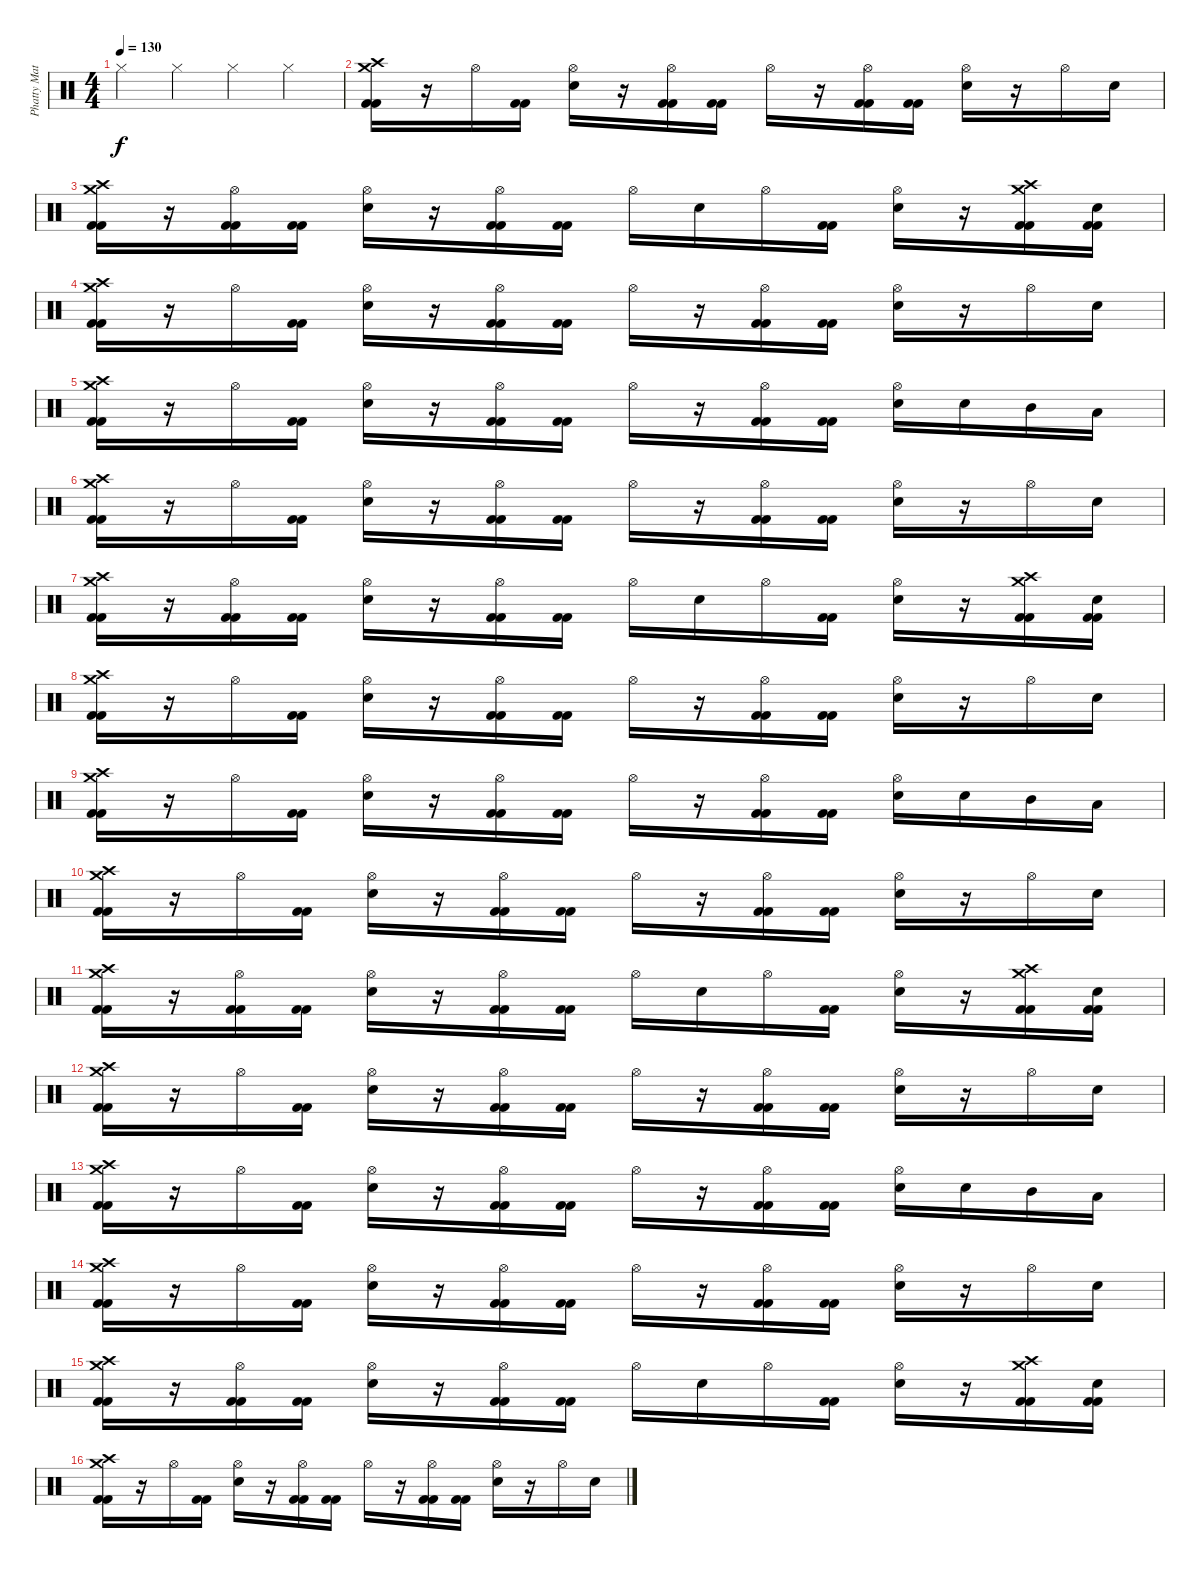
\track ("Phatty Matty Withrow (Drums)" "Phatty Mat") {instrument percussion}
\staff {score}
\articulation defaults
\ts (4 4)
\tempo 130
\clef neutral
\ks c "Hi-Hat (closed)".4{dy f} "Hi-Hat (closed)".4 "Hi-Hat (closed)".4 "Hi-Hat (closed)".4
|
("Crash high (hit)" "Crash medium (hit)" "Kick (hit) 2" "Kick (hit) 2").16 r.16 "Hi-Hat (open)".16 ("Kick (hit) 2" "Kick (hit) 2").16 ("Hi-Hat (open)" "Electric Snare (hit)").16 r.16 ("Hi-Hat (open)" "Kick (hit) 2" "Kick (hit) 2").16 ("Kick (hit) 2" "Kick (hit) 2").16 "Hi-Hat (open)".16 r.16 ("Hi-Hat (open)" "Kick (hit) 2" "Kick (hit) 2").16 ("Kick (hit) 2" "Kick (hit) 2").16 ("Hi-Hat (open)" "Electric Snare (hit)").16 r.16 "Hi-Hat (open)".16 "Electric Snare (hit)".16 |
("Crash high (hit)" "Crash medium (hit)" "Kick (hit) 2" "Kick (hit) 2").16 r.16 ("Hi-Hat (open)" "Kick (hit) 2" "Kick (hit) 2").16 ("Kick (hit) 2" "Kick (hit) 2").16 ("Hi-Hat (open)" "Electric Snare (hit)").16 r.16 ("Hi-Hat (open)" "Kick (hit) 2" "Kick (hit) 2").16 ("Kick (hit) 2" "Kick (hit) 2").16 "Hi-Hat (open)".16 "Electric Snare (hit)".16 "Hi-Hat (open)".16 ("Kick (hit) 2" "Kick (hit) 2").16 ("Hi-Hat (open)" "Electric Snare (hit)").16 r.16 ("Crash high (hit)" "Crash medium (hit)" "Kick (hit) 2" "Kick (hit) 2").16 ("Electric Snare (hit)" "Kick (hit) 2" "Kick (hit) 2").16 |
("Crash high (hit)" "Crash medium (hit)" "Kick (hit) 2" "Kick (hit) 2").16 r.16 "Hi-Hat (open)".16 ("Kick (hit) 2" "Kick (hit) 2").16 ("Hi-Hat (open)" "Electric Snare (hit)").16 r.16 ("Hi-Hat (open)" "Kick (hit) 2" "Kick (hit) 2").16 ("Kick (hit) 2" "Kick (hit) 2").16 "Hi-Hat (open)".16 r.16 ("Hi-Hat (open)" "Kick (hit) 2" "Kick (hit) 2").16 ("Kick (hit) 2" "Kick (hit) 2").16 ("Hi-Hat (open)" "Electric Snare (hit)").16 r.16 "Hi-Hat (open)".16 "Electric Snare (hit)".16 |
("Crash high (hit)" "Crash medium (hit)" "Kick (hit) 2" "Kick (hit) 2").16 r.16 "Hi-Hat (open)".16 ("Kick (hit) 2" "Kick (hit) 2").16 ("Hi-Hat (open)" "Electric Snare (hit)").16 r.16 ("Hi-Hat (open)" "Kick (hit) 2" "Kick (hit) 2").16 ("Kick (hit) 2" "Kick (hit) 2").16 "Hi-Hat (open)".16 r.16 ("Hi-Hat (open)" "Kick (hit) 2" "Kick (hit) 2").16 ("Kick (hit) 2" "Kick (hit) 2").16 ("Hi-Hat (open)" "Electric Snare (hit)").16 "Electric Snare (hit)".16 "Mid Tom (hit)".16 "Low Floor Tom (hit)".16 |
("Crash high (hit)" "Crash medium (hit)" "Kick (hit) 2" "Kick (hit) 2").16 r.16 "Hi-Hat (open)".16 ("Kick (hit) 2" "Kick (hit) 2").16 ("Hi-Hat (open)" "Electric Snare (hit)").16 r.16 ("Hi-Hat (open)" "Kick (hit) 2" "Kick (hit) 2").16 ("Kick (hit) 2" "Kick (hit) 2").16 "Hi-Hat (open)".16 r.16 ("Hi-Hat (open)" "Kick (hit) 2" "Kick (hit) 2").16 ("Kick (hit) 2" "Kick (hit) 2").16 ("Hi-Hat (open)" "Electric Snare (hit)").16 r.16 "Hi-Hat (open)".16 "Electric Snare (hit)".16 |
("Crash high (hit)" "Crash medium (hit)" "Kick (hit) 2" "Kick (hit) 2").16 r.16 ("Hi-Hat (open)" "Kick (hit) 2" "Kick (hit) 2").16 ("Kick (hit) 2" "Kick (hit) 2").16 ("Hi-Hat (open)" "Electric Snare (hit)").16 r.16 ("Hi-Hat (open)" "Kick (hit) 2" "Kick (hit) 2").16 ("Kick (hit) 2" "Kick (hit) 2").16 "Hi-Hat (open)".16 "Electric Snare (hit)".16 "Hi-Hat (open)".16 ("Kick (hit) 2" "Kick (hit) 2").16 ("Hi-Hat (open)" "Electric Snare (hit)").16 r.16 ("Crash high (hit)" "Crash medium (hit)" "Kick (hit) 2" "Kick (hit) 2").16 ("Electric Snare (hit)" "Kick (hit) 2" "Kick (hit) 2").16 |
("Crash high (hit)" "Crash medium (hit)" "Kick (hit) 2" "Kick (hit) 2").16 r.16 "Hi-Hat (open)".16 ("Kick (hit) 2" "Kick (hit) 2").16 ("Hi-Hat (open)" "Electric Snare (hit)").16 r.16 ("Hi-Hat (open)" "Kick (hit) 2" "Kick (hit) 2").16 ("Kick (hit) 2" "Kick (hit) 2").16 "Hi-Hat (open)".16 r.16 ("Hi-Hat (open)" "Kick (hit) 2" "Kick (hit) 2").16 ("Kick (hit) 2" "Kick (hit) 2").16 ("Hi-Hat (open)" "Electric Snare (hit)").16 r.16 "Hi-Hat (open)".16 "Electric Snare (hit)".16 |
("Crash high (hit)" "Crash medium (hit)" "Kick (hit) 2" "Kick (hit) 2").16 r.16 "Hi-Hat (open)".16 ("Kick (hit) 2" "Kick (hit) 2").16 ("Hi-Hat (open)" "Electric Snare (hit)").16 r.16 ("Hi-Hat (open)" "Kick (hit) 2" "Kick (hit) 2").16 ("Kick (hit) 2" "Kick (hit) 2").16 "Hi-Hat (open)".16 r.16 ("Hi-Hat (open)" "Kick (hit) 2" "Kick (hit) 2").16 ("Kick (hit) 2" "Kick (hit) 2").16 ("Hi-Hat (open)" "Electric Snare (hit)").16 "Electric Snare (hit)".16 "Mid Tom (hit)".16 "Low Floor Tom (hit)".16 |
("Crash high (hit)" "Crash medium (hit)" "Kick (hit) 2" "Kick (hit) 2").16 r.16 "Hi-Hat (open)".16 ("Kick (hit) 2" "Kick (hit) 2").16 ("Hi-Hat (open)" "Electric Snare (hit)").16 r.16 ("Hi-Hat (open)" "Kick (hit) 2" "Kick (hit) 2").16 ("Kick (hit) 2" "Kick (hit) 2").16 "Hi-Hat (open)".16 r.16 ("Hi-Hat (open)" "Kick (hit) 2" "Kick (hit) 2").16 ("Kick (hit) 2" "Kick (hit) 2").16 ("Hi-Hat (open)" "Electric Snare (hit)").16 r.16 "Hi-Hat (open)".16 "Electric Snare (hit)".16 |
("Crash high (hit)" "Crash medium (hit)" "Kick (hit) 2" "Kick (hit) 2").16 r.16 ("Hi-Hat (open)" "Kick (hit) 2" "Kick (hit) 2").16 ("Kick (hit) 2" "Kick (hit) 2").16 ("Hi-Hat (open)" "Electric Snare (hit)").16 r.16 ("Hi-Hat (open)" "Kick (hit) 2" "Kick (hit) 2").16 ("Kick (hit) 2" "Kick (hit) 2").16 "Hi-Hat (open)".16 "Electric Snare (hit)".16 "Hi-Hat (open)".16 ("Kick (hit) 2" "Kick (hit) 2").16 ("Hi-Hat (open)" "Electric Snare (hit)").16 r.16 ("Crash high (hit)" "Crash medium (hit)" "Kick (hit) 2" "Kick (hit) 2").16 ("Electric Snare (hit)" "Kick (hit) 2" "Kick (hit) 2").16 |
("Crash high (hit)" "Crash medium (hit)" "Kick (hit) 2" "Kick (hit) 2").16 r.16 "Hi-Hat (open)".16 ("Kick (hit) 2" "Kick (hit) 2").16 ("Hi-Hat (open)" "Electric Snare (hit)").16 r.16 ("Hi-Hat (open)" "Kick (hit) 2" "Kick (hit) 2").16 ("Kick (hit) 2" "Kick (hit) 2").16 "Hi-Hat (open)".16 r.16 ("Hi-Hat (open)" "Kick (hit) 2" "Kick (hit) 2").16 ("Kick (hit) 2" "Kick (hit) 2").16 ("Hi-Hat (open)" "Electric Snare (hit)").16 r.16 "Hi-Hat (open)".16 "Electric Snare (hit)".16 |
("Crash high (hit)" "Crash medium (hit)" "Kick (hit) 2" "Kick (hit) 2").16 r.16 "Hi-Hat (open)".16 ("Kick (hit) 2" "Kick (hit) 2").16 ("Hi-Hat (open)" "Electric Snare (hit)").16 r.16 ("Hi-Hat (open)" "Kick (hit) 2" "Kick (hit) 2").16 ("Kick (hit) 2" "Kick (hit) 2").16 "Hi-Hat (open)".16 r.16 ("Hi-Hat (open)" "Kick (hit) 2" "Kick (hit) 2").16 ("Kick (hit) 2" "Kick (hit) 2").16 ("Hi-Hat (open)" "Electric Snare (hit)").16 "Electric Snare (hit)".16 "Mid Tom (hit)".16 "Low Floor Tom (hit)".16 |
("Crash high (hit)" "Crash medium (hit)" "Kick (hit) 2" "Kick (hit) 2").16 r.16 "Hi-Hat (open)".16 ("Kick (hit) 2" "Kick (hit) 2").16 ("Hi-Hat (open)" "Electric Snare (hit)").16 r.16 ("Hi-Hat (open)" "Kick (hit) 2" "Kick (hit) 2").16 ("Kick (hit) 2" "Kick (hit) 2").16 "Hi-Hat (open)".16 r.16 ("Hi-Hat (open)" "Kick (hit) 2" "Kick (hit) 2").16 ("Kick (hit) 2" "Kick (hit) 2").16 ("Hi-Hat (open)" "Electric Snare (hit)").16 r.16 "Hi-Hat (open)".16 "Electric Snare (hit)".16 |
("Crash high (hit)" "Crash medium (hit)" "Kick (hit) 2" "Kick (hit) 2").16 r.16 ("Hi-Hat (open)" "Kick (hit) 2" "Kick (hit) 2").16 ("Kick (hit) 2" "Kick (hit) 2").16 ("Hi-Hat (open)" "Electric Snare (hit)").16 r.16 ("Hi-Hat (open)" "Kick (hit) 2" "Kick (hit) 2").16 ("Kick (hit) 2" "Kick (hit) 2").16 "Hi-Hat (open)".16 "Electric Snare (hit)".16 "Hi-Hat (open)".16 ("Kick (hit) 2" "Kick (hit) 2").16 ("Hi-Hat (open)" "Electric Snare (hit)").16 r.16 ("Crash high (hit)" "Crash medium (hit)" "Kick (hit) 2" "Kick (hit) 2").16 ("Electric Snare (hit)" "Kick (hit) 2" "Kick (hit) 2").16 |
("Crash high (hit)" "Crash medium (hit)" "Kick (hit) 2" "Kick (hit) 2").16 r.16 "Hi-Hat (open)".16 ("Kick (hit) 2" "Kick (hit) 2").16 ("Hi-Hat (open)" "Electric Snare (hit)").16 r.16 ("Hi-Hat (open)" "Kick (hit) 2" "Kick (hit) 2").16 ("Kick (hit) 2" "Kick (hit) 2").16 "Hi-Hat (open)".16 r.16 ("Hi-Hat (open)" "Kick (hit) 2" "Kick (hit) 2").16 ("Kick (hit) 2" "Kick (hit) 2").16 ("Hi-Hat (open)" "Electric Snare (hit)").16 r.16 "Hi-Hat (open)".16 "Electric Snare (hit)".16
